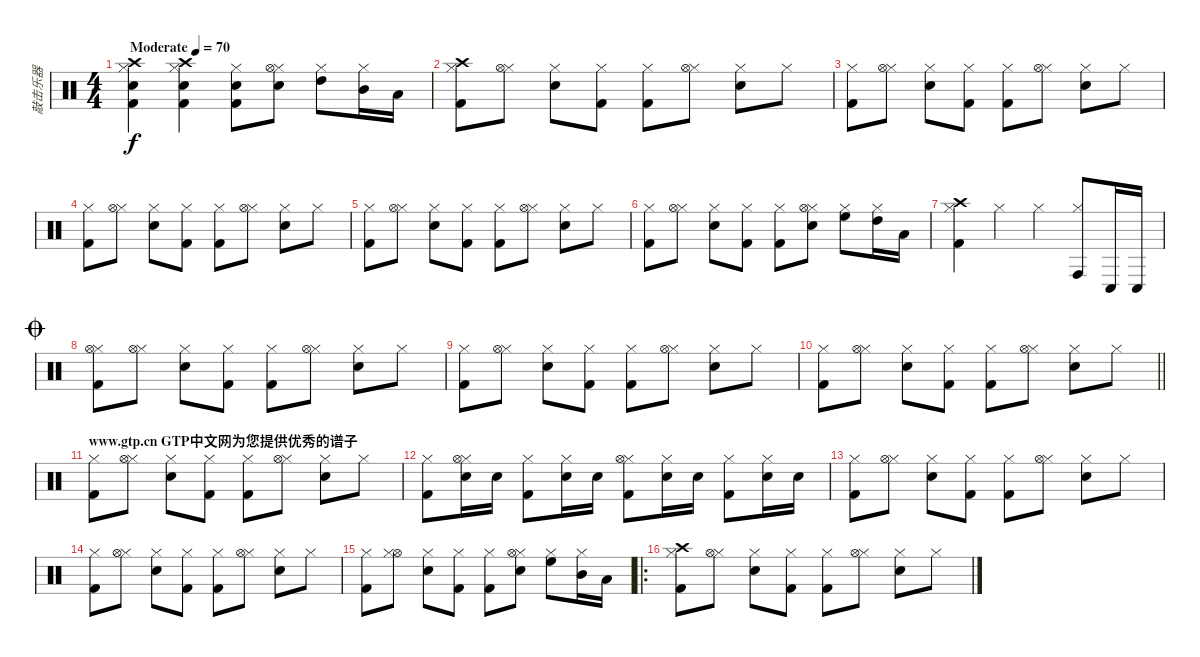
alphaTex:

\track ("敲击乐器" "敲击乐器") {instrument percussion}
\staff {score}
\articulation defaults
\ts (4 4)
\tempo (70 "Moderate")
\clef neutral
\ks c
("Crash high (hit)" "Hi-Hat (closed)" "Kick (hit) 2" "Electric Snare (hit)").4{dy f} ("Crash high (hit)" "Hi-Hat (closed)" "Kick (hit) 2" "Electric Snare (hit)").4 ("Kick (hit) 2" "Hi-Hat (closed)" "Electric Snare (hit)").8 ("Hi-Hat (closed)" "Hi-Hat (open)" "Electric Snare (hit)").8 ("High Tom (hit)" "Hi-Hat (closed)").8 ("Hi-Hat (closed)" "Mid Tom (hit)").16 "Low Tom (hit)".16 |
("Kick (hit) 2" "Hi-Hat (closed)" "Crash high (hit)").8 ("Hi-Hat (closed)" "Hi-Hat (open)").8 ("Electric Snare (hit)" "Hi-Hat (closed)").8 ("Kick (hit) 2" "Hi-Hat (closed)").8 ("Kick (hit) 2" "Hi-Hat (closed)").8 ("Hi-Hat (closed)" "Hi-Hat (open)").8 ("Electric Snare (hit)" "Hi-Hat (closed)").8 "Hi-Hat (closed)".8 |
("Kick (hit) 2" "Hi-Hat (closed)").8 ("Hi-Hat (closed)" "Hi-Hat (open)").8 ("Electric Snare (hit)" "Hi-Hat (closed)").8 ("Kick (hit) 2" "Hi-Hat (closed)").8 ("Kick (hit) 2" "Hi-Hat (closed)").8 ("Hi-Hat (closed)" "Hi-Hat (open)").8 ("Electric Snare (hit)" "Hi-Hat (closed)").8 "Hi-Hat (closed)".8 |
("Kick (hit) 2" "Hi-Hat (closed)").8 ("Hi-Hat (closed)" "Hi-Hat (open)").8 ("Electric Snare (hit)" "Hi-Hat (closed)").8 ("Kick (hit) 2" "Hi-Hat (closed)").8 ("Kick (hit) 2" "Hi-Hat (closed)").8 ("Hi-Hat (closed)" "Hi-Hat (open)").8 ("Electric Snare (hit)" "Hi-Hat (closed)").8 "Hi-Hat (closed)".8 |
("Kick (hit) 2" "Hi-Hat (closed)").8 ("Hi-Hat (closed)" "Hi-Hat (open)").8 ("Electric Snare (hit)" "Hi-Hat (closed)").8 ("Kick (hit) 2" "Hi-Hat (closed)").8 ("Kick (hit) 2" "Hi-Hat (closed)").8 ("Hi-Hat (closed)" "Hi-Hat (open)").8 ("Electric Snare (hit)" "Hi-Hat (closed)").8 "Hi-Hat (closed)".8 |
("Kick (hit) 2" "Hi-Hat (closed)").8 ("Hi-Hat (closed)" "Hi-Hat (open)").8 ("Electric Snare (hit)" "Hi-Hat (closed)").8 ("Kick (hit) 2" "Hi-Hat (closed)").8 ("Kick (hit) 2" "Hi-Hat (closed)").8 ("Hi-Hat (closed)" "Hi-Hat (open)" "Electric Snare (hit)").8 ("High Floor Tom (hit)" "Hi-Hat (closed)").8 ("Hi-Hat (closed)" "High Tom (hit)").16 "Low Tom (hit)".16 |
("Kick (hit) 2" "Hi-Hat (closed)" "Crash high (hit)").4 "Hi-Hat (closed)".4 "Hi-Hat (closed)".4 ("Hi-Hat (closed)" "Conga high (hit)").8 "Conga low (hit)".16 "Conga low (hit)".16 |
\jump coda
("Kick (hit) 2" "Hi-Hat (closed)" "Hi-Hat (open)").8 ("Hi-Hat (closed)" "Hi-Hat (open)").8 ("Electric Snare (hit)" "Hi-Hat (closed)").8 ("Kick (hit) 2" "Hi-Hat (closed)").8 ("Kick (hit) 2" "Hi-Hat (closed)").8 ("Hi-Hat (closed)" "Hi-Hat (open)").8 ("Electric Snare (hit)" "Hi-Hat (closed)").8 "Hi-Hat (closed)".8 |
("Kick (hit) 2" "Hi-Hat (closed)").8 ("Hi-Hat (closed)" "Hi-Hat (open)").8 ("Electric Snare (hit)" "Hi-Hat (closed)").8 ("Kick (hit) 2" "Hi-Hat (closed)").8 ("Kick (hit) 2" "Hi-Hat (closed)").8 ("Hi-Hat (closed)" "Hi-Hat (open)").8 ("Electric Snare (hit)" "Hi-Hat (closed)").8 "Hi-Hat (closed)".8 |
\barLineRight lightlight
("Kick (hit) 2" "Hi-Hat (closed)").8 ("Hi-Hat (closed)" "Hi-Hat (open)").8 ("Electric Snare (hit)" "Hi-Hat (closed)").8 ("Kick (hit) 2" "Hi-Hat (closed)").8 ("Kick (hit) 2" "Hi-Hat (closed)").8 ("Hi-Hat (closed)" "Hi-Hat (open)").8 ("Electric Snare (hit)" "Hi-Hat (closed)").8 "Hi-Hat (closed)".8 |
\section ("" "www.gtp.cn GTP中文网为您提供优秀的谱子")
("Kick (hit) 2" "Hi-Hat (closed)").8 ("Hi-Hat (closed)" "Hi-Hat (open)").8 ("Electric Snare (hit)" "Hi-Hat (closed)").8 ("Kick (hit) 2" "Hi-Hat (closed)").8 ("Kick (hit) 2" "Hi-Hat (closed)").8 ("Hi-Hat (closed)" "Hi-Hat (open)").8 ("Electric Snare (hit)" "Hi-Hat (closed)").8 "Hi-Hat (closed)".8 |
("Kick (hit) 2" "Hi-Hat (closed)").8 ("Hi-Hat (closed)" "Hi-Hat (open)" "Electric Snare (hit)").16 "Electric Snare (hit)".16 ("Kick (hit) 2" "Hi-Hat (closed)").8 ("Hi-Hat (closed)" "Electric Snare (hit)").16 "Electric Snare (hit)".16 ("Hi-Hat (closed)" "Hi-Hat (open)" "Kick (hit) 2").8 ("Electric Snare (hit)" "Hi-Hat (closed)").16 "Electric Snare (hit)".16 ("Kick (hit) 2" "Hi-Hat (closed)").8 ("Electric Snare (hit)" "Hi-Hat (closed)").16 "Electric Snare (hit)".16 |
("Kick (hit) 2" "Hi-Hat (closed)").8 ("Hi-Hat (closed)" "Hi-Hat (open)").8 ("Electric Snare (hit)" "Hi-Hat (closed)").8 ("Kick (hit) 2" "Hi-Hat (closed)").8 ("Kick (hit) 2" "Hi-Hat (closed)").8 ("Hi-Hat (closed)" "Hi-Hat (open)").8 ("Electric Snare (hit)" "Hi-Hat (closed)").8 "Hi-Hat (closed)".8 |
("Kick (hit) 2" "Hi-Hat (closed)").8 ("Hi-Hat (closed)" "Hi-Hat (open)").8 ("Electric Snare (hit)" "Hi-Hat (closed)").8 ("Kick (hit) 2" "Hi-Hat (closed)").8 ("Kick (hit) 2" "Hi-Hat (closed)").8 ("Hi-Hat (closed)" "Hi-Hat (open)").8 ("Electric Snare (hit)" "Hi-Hat (closed)").8 "Hi-Hat (closed)".8 |
("Kick (hit) 2" "Hi-Hat (closed)").8 ("Hi-Hat (open)" "Hi-Hat (closed)").8 ("Electric Snare (hit)" "Hi-Hat (closed)").8 ("Hi-Hat (closed)" "Kick (hit) 2").8 ("Hi-Hat (closed)" "Kick (hit) 2").8 ("Hi-Hat (closed)" "Electric Snare (hit)" "Hi-Hat (open)").8 ("High Floor Tom (hit)" "Hi-Hat (closed)").8 ("Mid Tom (hit)" "Hi-Hat (closed)").16 "Low Tom (hit)".16 |
\ro
("Kick (hit) 2" "Hi-Hat (closed)" "Crash high (hit)").8 ("Hi-Hat (closed)" "Hi-Hat (open)").8 ("Electric Snare (hit)" "Hi-Hat (closed)").8 ("Kick (hit) 2" "Hi-Hat (closed)").8 ("Kick (hit) 2" "Hi-Hat (closed)").8 ("Hi-Hat (closed)" "Hi-Hat (open)").8 ("Electric Snare (hit)" "Hi-Hat (closed)").8 "Hi-Hat (closed)".8
